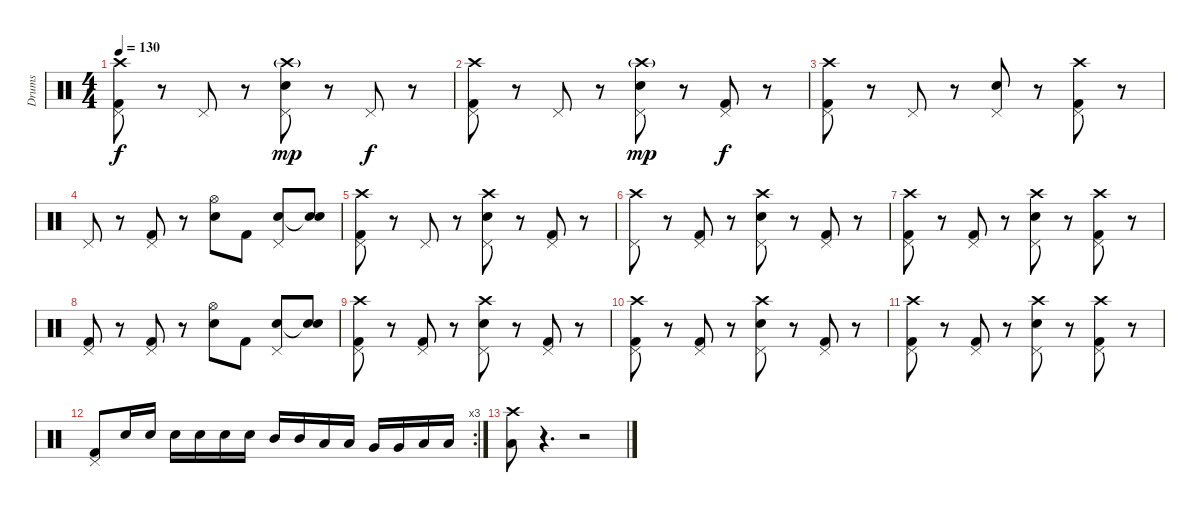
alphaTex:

\track ("Drums" "Drums") {instrument percussion}
\staff {score}
\articulation defaults
\ts (4 4)
\tempo 130
\clef neutral
\ks c
("Crash high (hit)" "Pedal Hi-Hat (hit)" "Kick (hit) 2").8{dy f} r.8 "Pedal Hi-Hat (hit)".8 r.8 ("Crash high (hit)"{g} "Snare (hit) 2" "Pedal Hi-Hat (hit)").8{dy mp} r.8 "Pedal Hi-Hat (hit)".8{dy f} r.8 |
("Crash high (hit)" "Pedal Hi-Hat (hit)" "Kick (hit) 2").8 r.8 "Pedal Hi-Hat (hit)".8 r.8 ("Crash high (hit)"{g} "Snare (hit) 2" "Pedal Hi-Hat (hit)").8{dy mp} r.8 ("Pedal Hi-Hat (hit)" "Kick (hit) 2").8{dy f} r.8 |
("Crash high (hit)" "Pedal Hi-Hat (hit)" "Kick (hit) 2").8 r.8 "Pedal Hi-Hat (hit)".8 r.8 ("Snare (hit) 2" "Pedal Hi-Hat (hit)").8 r.8 ("Crash high (hit)" "Pedal Hi-Hat (hit)" "Kick (hit) 2").8 r.8 |
"Pedal Hi-Hat (hit)".8 r.8 ("Pedal Hi-Hat (hit)" "Kick (hit) 2").8 r.8 ("Hi-Hat (open)" "Snare (hit) 2").8 "Kick (hit) 2".8 ("Snare (hit) 2" "Pedal Hi-Hat (hit)").8 ("Snare (hit)"{t} "Snare (hit) 2").8 |
("Crash high (hit)" "Pedal Hi-Hat (hit)" "Kick (hit) 2").8 r.8 "Pedal Hi-Hat (hit)".8 r.8 ("Crash high (hit)" "Snare (hit) 2" "Pedal Hi-Hat (hit)").8 r.8 ("Pedal Hi-Hat (hit)" "Kick (hit) 2").8 r.8 |
("Crash high (hit)" "Pedal Hi-Hat (hit)").8 r.8 ("Pedal Hi-Hat (hit)" "Kick (hit) 2").8 r.8 ("Crash high (hit)" "Snare (hit) 2" "Pedal Hi-Hat (hit)").8 r.8 ("Pedal Hi-Hat (hit)" "Kick (hit) 2").8 r.8 |
("Crash high (hit)" "Pedal Hi-Hat (hit)" "Kick (hit) 2").8 r.8 ("Pedal Hi-Hat (hit)" "Kick (hit) 2").8 r.8 ("Crash high (hit)" "Snare (hit) 2" "Pedal Hi-Hat (hit)").8 r.8 ("Crash high (hit)" "Pedal Hi-Hat (hit)" "Kick (hit) 2").8 r.8 |
("Pedal Hi-Hat (hit)" "Kick (hit) 2").8 r.8 ("Pedal Hi-Hat (hit)" "Kick (hit) 2").8 r.8 ("Hi-Hat (open)" "Snare (hit) 2").8 "Kick (hit) 2".8 ("Snare (hit) 2" "Pedal Hi-Hat (hit)").8 ("Snare (hit)"{t} "Snare (hit) 2").8 |
("Crash high (hit)" "Pedal Hi-Hat (hit)" "Kick (hit) 2").8 r.8 ("Pedal Hi-Hat (hit)" "Kick (hit) 2").8 r.8 ("Crash high (hit)" "Snare (hit) 2" "Pedal Hi-Hat (hit)").8 r.8 ("Pedal Hi-Hat (hit)" "Kick (hit) 2").8 r.8 |
("Crash high (hit)" "Pedal Hi-Hat (hit)" "Kick (hit) 2").8 r.8 ("Pedal Hi-Hat (hit)" "Kick (hit) 2").8 r.8 ("Crash high (hit)" "Snare (hit) 2" "Pedal Hi-Hat (hit)").8 r.8 ("Pedal Hi-Hat (hit)" "Kick (hit) 2").8 r.8 |
("Crash high (hit)" "Pedal Hi-Hat (hit)" "Kick (hit) 2").8 r.8 ("Pedal Hi-Hat (hit)" "Kick (hit) 2").8 r.8 ("Crash high (hit)" "Snare (hit) 2" "Pedal Hi-Hat (hit)").8 r.8 ("Crash high (hit)" "Pedal Hi-Hat (hit)" "Kick (hit) 2").8 r.8 |
\rc 3
("Pedal Hi-Hat (hit)" "Kick (hit) 2").8 "Snare (hit) 2".16 "Snare (hit) 2".16 "Snare (hit) 2".16 "Snare (hit) 2".16 "Snare (hit) 2".16 "Snare (hit) 2".16 "Mid Tom (hit)".16 "Mid Tom (hit)".16 "Low Tom (hit)".16 "Low Tom (hit)".16 "Very Low Tom (hit)".16 "Very Low Tom (hit)".16 "Low Floor Tom (hit)".16 "Low Floor Tom (hit)".16 |
("Crash high (hit)" "Low Floor Tom (hit)").8 r.4{d} r.2
